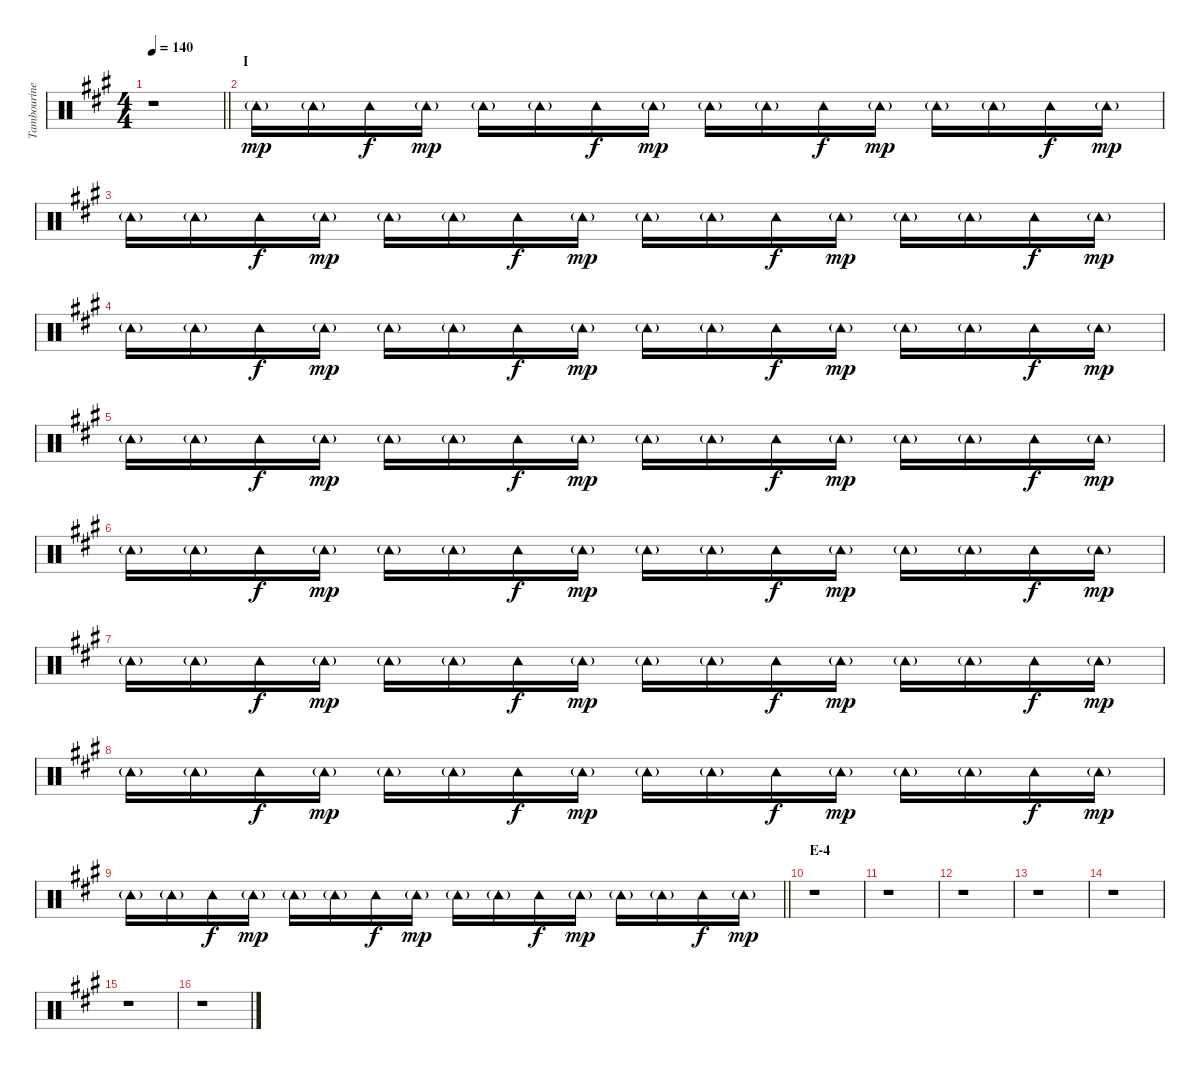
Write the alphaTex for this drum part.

\track ("Tambourine" "Tambourine") {instrument percussion}
\staff {score}
\articulation defaults
\ts (4 4)
\tempo 140
\clef neutral
\barLineRight lightlight
\ks a
r.1{dy mp} |
\section ("" "I")
"Tambourine (hit)"{g}.16 "Tambourine (hit)"{g}.16 "Tambourine (hit)".16{dy f} "Tambourine (hit)"{g}.16{dy mp} "Tambourine (hit)"{g}.16 "Tambourine (hit)"{g}.16 "Tambourine (hit)".16{dy f} "Tambourine (hit)"{g}.16{dy mp} "Tambourine (hit)"{g}.16 "Tambourine (hit)"{g}.16 "Tambourine (hit)".16{dy f} "Tambourine (hit)"{g}.16{dy mp} "Tambourine (hit)"{g}.16 "Tambourine (hit)"{g}.16 "Tambourine (hit)".16{dy f} "Tambourine (hit)"{g}.16{dy mp} |
"Tambourine (hit)"{g}.16 "Tambourine (hit)"{g}.16 "Tambourine (hit)".16{dy f} "Tambourine (hit)"{g}.16{dy mp} "Tambourine (hit)"{g}.16 "Tambourine (hit)"{g}.16 "Tambourine (hit)".16{dy f} "Tambourine (hit)"{g}.16{dy mp} "Tambourine (hit)"{g}.16 "Tambourine (hit)"{g}.16 "Tambourine (hit)".16{dy f} "Tambourine (hit)"{g}.16{dy mp} "Tambourine (hit)"{g}.16 "Tambourine (hit)"{g}.16 "Tambourine (hit)".16{dy f} "Tambourine (hit)"{g}.16{dy mp} |
"Tambourine (hit)"{g}.16 "Tambourine (hit)"{g}.16 "Tambourine (hit)".16{dy f} "Tambourine (hit)"{g}.16{dy mp} "Tambourine (hit)"{g}.16 "Tambourine (hit)"{g}.16 "Tambourine (hit)".16{dy f} "Tambourine (hit)"{g}.16{dy mp} "Tambourine (hit)"{g}.16 "Tambourine (hit)"{g}.16 "Tambourine (hit)".16{dy f} "Tambourine (hit)"{g}.16{dy mp} "Tambourine (hit)"{g}.16 "Tambourine (hit)"{g}.16 "Tambourine (hit)".16{dy f} "Tambourine (hit)"{g}.16{dy mp} |
"Tambourine (hit)"{g}.16 "Tambourine (hit)"{g}.16 "Tambourine (hit)".16{dy f} "Tambourine (hit)"{g}.16{dy mp} "Tambourine (hit)"{g}.16 "Tambourine (hit)"{g}.16 "Tambourine (hit)".16{dy f} "Tambourine (hit)"{g}.16{dy mp} "Tambourine (hit)"{g}.16 "Tambourine (hit)"{g}.16 "Tambourine (hit)".16{dy f} "Tambourine (hit)"{g}.16{dy mp} "Tambourine (hit)"{g}.16 "Tambourine (hit)"{g}.16 "Tambourine (hit)".16{dy f} "Tambourine (hit)"{g}.16{dy mp} |
"Tambourine (hit)"{g}.16 "Tambourine (hit)"{g}.16 "Tambourine (hit)".16{dy f} "Tambourine (hit)"{g}.16{dy mp} "Tambourine (hit)"{g}.16 "Tambourine (hit)"{g}.16 "Tambourine (hit)".16{dy f} "Tambourine (hit)"{g}.16{dy mp} "Tambourine (hit)"{g}.16 "Tambourine (hit)"{g}.16 "Tambourine (hit)".16{dy f} "Tambourine (hit)"{g}.16{dy mp} "Tambourine (hit)"{g}.16 "Tambourine (hit)"{g}.16 "Tambourine (hit)".16{dy f} "Tambourine (hit)"{g}.16{dy mp} |
"Tambourine (hit)"{g}.16 "Tambourine (hit)"{g}.16 "Tambourine (hit)".16{dy f} "Tambourine (hit)"{g}.16{dy mp} "Tambourine (hit)"{g}.16 "Tambourine (hit)"{g}.16 "Tambourine (hit)".16{dy f} "Tambourine (hit)"{g}.16{dy mp} "Tambourine (hit)"{g}.16 "Tambourine (hit)"{g}.16 "Tambourine (hit)".16{dy f} "Tambourine (hit)"{g}.16{dy mp} "Tambourine (hit)"{g}.16 "Tambourine (hit)"{g}.16 "Tambourine (hit)".16{dy f} "Tambourine (hit)"{g}.16{dy mp} |
"Tambourine (hit)"{g}.16 "Tambourine (hit)"{g}.16 "Tambourine (hit)".16{dy f} "Tambourine (hit)"{g}.16{dy mp} "Tambourine (hit)"{g}.16 "Tambourine (hit)"{g}.16 "Tambourine (hit)".16{dy f} "Tambourine (hit)"{g}.16{dy mp} "Tambourine (hit)"{g}.16 "Tambourine (hit)"{g}.16 "Tambourine (hit)".16{dy f} "Tambourine (hit)"{g}.16{dy mp} "Tambourine (hit)"{g}.16 "Tambourine (hit)"{g}.16 "Tambourine (hit)".16{dy f} "Tambourine (hit)"{g}.16{dy mp} |
\barLineRight lightlight "Tambourine (hit)"{g}.16 "Tambourine (hit)"{g}.16 "Tambourine (hit)".16{dy f} "Tambourine (hit)"{g}.16{dy mp} "Tambourine (hit)"{g}.16 "Tambourine (hit)"{g}.16 "Tambourine (hit)".16{dy f} "Tambourine (hit)"{g}.16{dy mp} "Tambourine (hit)"{g}.16 "Tambourine (hit)"{g}.16 "Tambourine (hit)".16{dy f} "Tambourine (hit)"{g}.16{dy mp} "Tambourine (hit)"{g}.16 "Tambourine (hit)"{g}.16 "Tambourine (hit)".16{dy f} "Tambourine (hit)"{g}.16{dy mp}
|
\section ("" "E-4")
r.1 |
r.1 |
r.1 |
r.1 |
r.1 |
r.1 |
r.1
